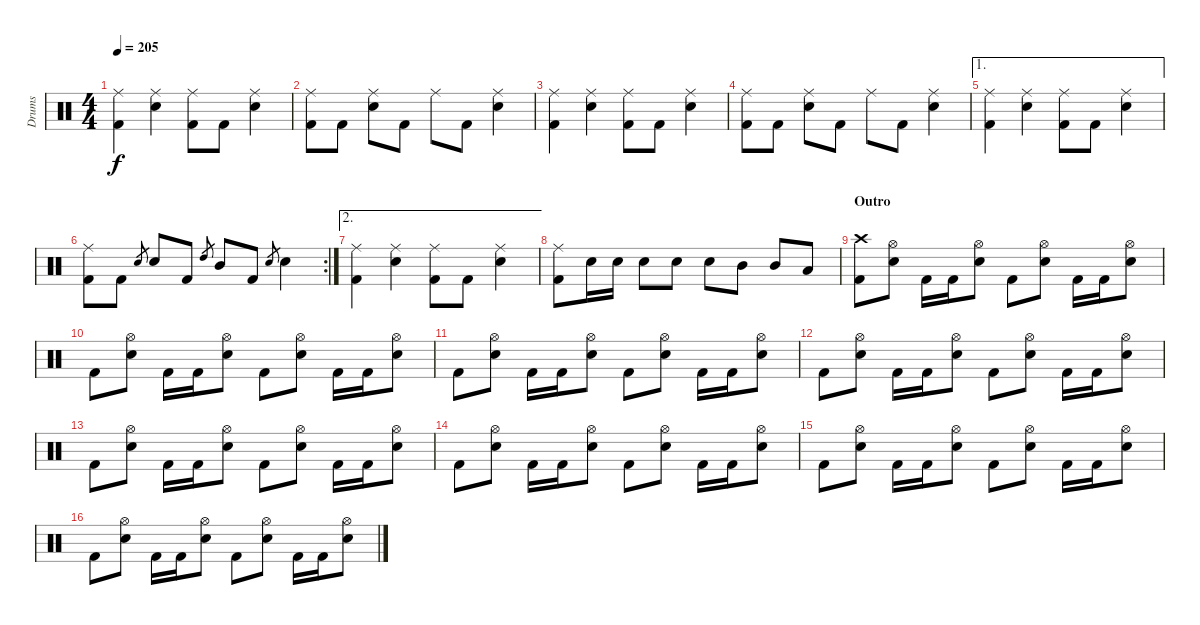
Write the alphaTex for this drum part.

\track ("Drums" "Drums") {instrument percussion}
\staff {score}
\articulation defaults
\ts (4 4)
\tempo 205
\clef neutral
\ks c
("Ride (middle)" "Kick (hit) 2").4{dy f} ("Ride (middle)" "Electric Snare (hit)").4 ("Ride (middle)" "Kick (hit) 2").8 "Kick (hit) 2".8 ("Ride (middle)" "Electric Snare (hit)").4 |
("Ride (middle)" "Kick (hit) 2").8 "Kick (hit) 2".8 ("Ride (middle)" "Electric Snare (hit)").8 "Kick (hit) 2".8 "Ride (middle)".8 "Kick (hit) 2".8 ("Ride (middle)" "Electric Snare (hit)").4 |
("Ride (middle)" "Kick (hit) 2").4 ("Ride (middle)" "Electric Snare (hit)").4 ("Ride (middle)" "Kick (hit) 2").8 "Kick (hit) 2".8 ("Ride (middle)" "Electric Snare (hit)").4 |
("Ride (middle)" "Kick (hit) 2").8 "Kick (hit) 2".8 ("Ride (middle)" "Electric Snare (hit)").8 "Kick (hit) 2".8 "Ride (middle)".8 "Kick (hit) 2".8 ("Ride (middle)" "Electric Snare (hit)").4 |
\ae 1
("Ride (middle)" "Kick (hit) 2").4 ("Ride (middle)" "Electric Snare (hit)").4 ("Ride (middle)" "Kick (hit) 2").8 "Kick (hit) 2".8 ("Ride (middle)" "Electric Snare (hit)").4 |
\rc 2
("Ride (middle)" "Kick (hit) 2").8 "Kick (hit) 2".8 "Electric Snare (hit)".8{gr} "Electric Snare (hit)".8 "Kick (hit) 2".8 "High Tom (hit)".8{gr} "Mid Tom (hit)".8 "Kick (hit) 2".8 "Electric Snare (hit)".8{gr} "Electric Snare (hit)".4 |
\ae 2
("Ride (middle)" "Kick (hit) 2").4 ("Ride (middle)" "Electric Snare (hit)").4 ("Ride (middle)" "Kick (hit) 2").8 "Kick (hit) 2".8 ("Ride (middle)" "Electric Snare (hit)").4 |
("Ride (middle)" "Kick (hit) 2").8 "Electric Snare (hit)".16 "Electric Snare (hit)".16 "Electric Snare (hit)".8 "Electric Snare (hit)".8 "Electric Snare (hit)".8 "Mid Tom (hit)".8 "Mid Tom (hit)".8 "Low Tom (hit)".8 |
\section ("" "Outro")
("Crash high (hit)" "Kick (hit) 2").8 ("Hi-Hat (open)" "Electric Snare (hit)").8 "Kick (hit) 2".16 "Kick (hit) 2".16 ("Hi-Hat (open)" "Electric Snare (hit)").8 "Kick (hit) 2".8 ("Hi-Hat (open)" "Electric Snare (hit)").8 "Kick (hit) 2".16 "Kick (hit) 2".16 ("Hi-Hat (open)" "Electric Snare (hit)").8 |
"Kick (hit) 2".8 ("Hi-Hat (open)" "Electric Snare (hit)").8 "Kick (hit) 2".16 "Kick (hit) 2".16 ("Hi-Hat (open)" "Electric Snare (hit)").8 "Kick (hit) 2".8 ("Hi-Hat (open)" "Electric Snare (hit)").8 "Kick (hit) 2".16 "Kick (hit) 2".16 ("Hi-Hat (open)" "Electric Snare (hit)").8 |
"Kick (hit) 2".8 ("Hi-Hat (open)" "Electric Snare (hit)").8 "Kick (hit) 2".16 "Kick (hit) 2".16 ("Hi-Hat (open)" "Electric Snare (hit)").8 "Kick (hit) 2".8 ("Hi-Hat (open)" "Electric Snare (hit)").8 "Kick (hit) 2".16 "Kick (hit) 2".16 ("Hi-Hat (open)" "Electric Snare (hit)").8 |
"Kick (hit) 2".8 ("Hi-Hat (open)" "Electric Snare (hit)").8 "Kick (hit) 2".16 "Kick (hit) 2".16 ("Hi-Hat (open)" "Electric Snare (hit)").8 "Kick (hit) 2".8 ("Hi-Hat (open)" "Electric Snare (hit)").8 "Kick (hit) 2".16 "Kick (hit) 2".16 ("Hi-Hat (open)" "Electric Snare (hit)").8 |
"Kick (hit) 2".8 ("Hi-Hat (open)" "Electric Snare (hit)").8 "Kick (hit) 2".16 "Kick (hit) 2".16 ("Hi-Hat (open)" "Electric Snare (hit)").8 "Kick (hit) 2".8 ("Hi-Hat (open)" "Electric Snare (hit)").8 "Kick (hit) 2".16 "Kick (hit) 2".16 ("Hi-Hat (open)" "Electric Snare (hit)").8 |
"Kick (hit) 2".8 ("Hi-Hat (open)" "Electric Snare (hit)").8 "Kick (hit) 2".16 "Kick (hit) 2".16 ("Hi-Hat (open)" "Electric Snare (hit)").8 "Kick (hit) 2".8 ("Hi-Hat (open)" "Electric Snare (hit)").8 "Kick (hit) 2".16 "Kick (hit) 2".16 ("Hi-Hat (open)" "Electric Snare (hit)").8 |
"Kick (hit) 2".8 ("Hi-Hat (open)" "Electric Snare (hit)").8 "Kick (hit) 2".16 "Kick (hit) 2".16 ("Hi-Hat (open)" "Electric Snare (hit)").8 "Kick (hit) 2".8 ("Hi-Hat (open)" "Electric Snare (hit)").8 "Kick (hit) 2".16 "Kick (hit) 2".16 ("Hi-Hat (open)" "Electric Snare (hit)").8 |
"Kick (hit) 2".8 ("Hi-Hat (open)" "Electric Snare (hit)").8 "Kick (hit) 2".16 "Kick (hit) 2".16 ("Hi-Hat (open)" "Electric Snare (hit)").8 "Kick (hit) 2".8 ("Hi-Hat (open)" "Electric Snare (hit)").8 "Kick (hit) 2".16 "Kick (hit) 2".16 ("Hi-Hat (open)" "Electric Snare (hit)").8
